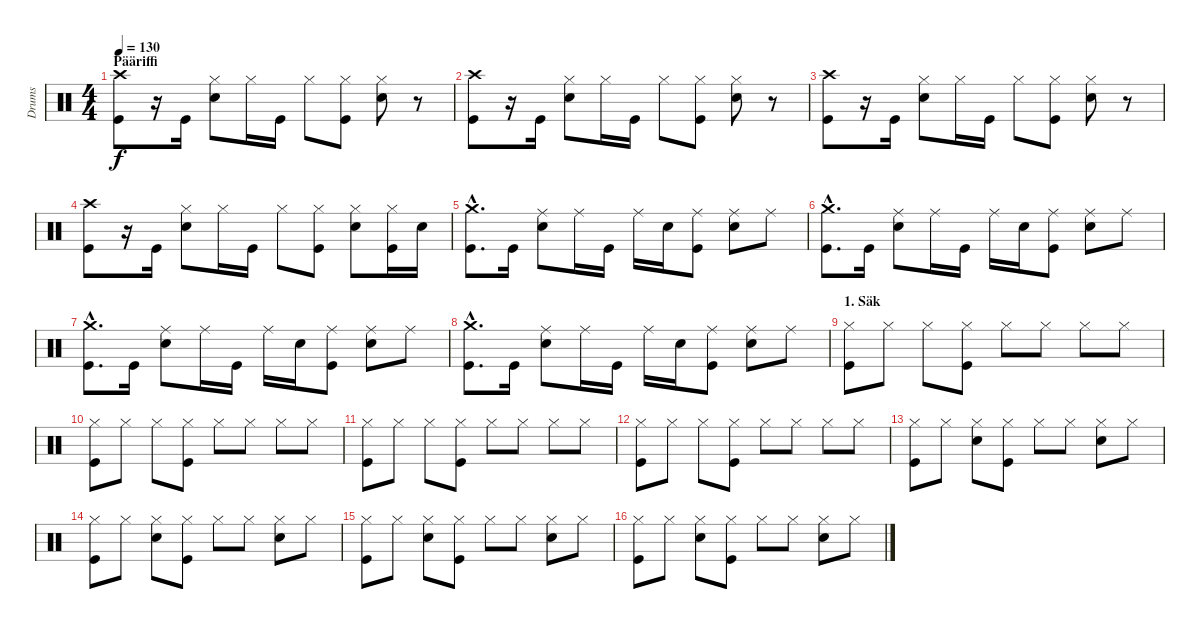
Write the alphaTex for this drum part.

\track ("Drums" "Drums") {instrument percussion}
\staff {score}
\articulation defaults
\ts (4 4)
\section ("" "Pääriffi")
\tempo 130
\clef neutral
\ks c
("Crash high (hit)" "Kick (hit)").8{dy f} r.16 "Kick (hit)".16 ("Hi-Hat (closed)" "Electric Snare (hit)").8 "Hi-Hat (closed)".16 "Kick (hit)".16 "Hi-Hat (closed)".8 ("Hi-Hat (closed)" "Kick (hit)").8 ("Hi-Hat (closed)" "Electric Snare (hit)").8 r.8 |
("Crash high (hit)" "Kick (hit)").8 r.16 "Kick (hit)".16 ("Hi-Hat (closed)" "Electric Snare (hit)").8 "Hi-Hat (closed)".16 "Kick (hit)".16 "Hi-Hat (closed)".8 ("Hi-Hat (closed)" "Kick (hit)").8 ("Hi-Hat (closed)" "Electric Snare (hit)").8 r.8 |
("Crash high (hit)" "Kick (hit)").8 r.16 "Kick (hit)".16 ("Hi-Hat (closed)" "Electric Snare (hit)").8 "Hi-Hat (closed)".16 "Kick (hit)".16 "Hi-Hat (closed)".8 ("Hi-Hat (closed)" "Kick (hit)").8 ("Hi-Hat (closed)" "Electric Snare (hit)").8 r.8 |
("Crash high (hit)" "Kick (hit)").8 r.16 "Kick (hit)".16 ("Hi-Hat (closed)" "Electric Snare (hit)").8 "Hi-Hat (closed)".16 "Kick (hit)".16 "Hi-Hat (closed)".8 ("Hi-Hat (closed)" "Kick (hit)").8 ("Hi-Hat (closed)" "Electric Snare (hit)").8 ("Hi-Hat (closed)" "Kick (hit)").16 "Electric Snare (hit)".16 |
("Crash medium (hit)"{hac} "Kick (hit)"{hac}).8{d} "Kick (hit)".16 ("Ride (middle)" "Electric Snare (hit)").8 "Ride (middle)".16 "Kick (hit)".16 "Ride (middle)".16 "Electric Snare (hit)".16 ("Ride (middle)" "Kick (hit)").8 ("Ride (middle)" "Electric Snare (hit)").8 "Ride (middle)".8 |
("Crash medium (hit)"{hac} "Kick (hit)"{hac}).8{d} "Kick (hit)".16 ("Ride (middle)" "Electric Snare (hit)").8 "Ride (middle)".16 "Kick (hit)".16 "Ride (middle)".16 "Electric Snare (hit)".16 ("Ride (middle)" "Kick (hit)").8 ("Ride (middle)" "Electric Snare (hit)").8 "Ride (middle)".8 |
("Crash medium (hit)"{hac} "Kick (hit)"{hac}).8{d} "Kick (hit)".16 ("Ride (middle)" "Electric Snare (hit)").8 "Ride (middle)".16 "Kick (hit)".16 "Ride (middle)".16 "Electric Snare (hit)".16 ("Ride (middle)" "Kick (hit)").8 ("Ride (middle)" "Electric Snare (hit)").8 "Ride (middle)".8 |
("Crash medium (hit)"{hac} "Kick (hit)"{hac}).8{d} "Kick (hit)".16 ("Ride (middle)" "Electric Snare (hit)").8 "Ride (middle)".16 "Kick (hit)".16 "Ride (middle)".16 "Electric Snare (hit)".16 ("Ride (middle)" "Kick (hit)").8 ("Ride (middle)" "Electric Snare (hit)").8 "Ride (middle)".8 |
\section ("" "1. Säk")
("Hi-Hat (closed)" "Kick (hit)").8 "Hi-Hat (closed)".8 "Hi-Hat (closed)".8 ("Hi-Hat (closed)" "Kick (hit)").8 "Hi-Hat (closed)".8 "Hi-Hat (closed)".8 "Hi-Hat (closed)".8 "Hi-Hat (closed)".8 |
("Hi-Hat (closed)" "Kick (hit)").8 "Hi-Hat (closed)".8 "Hi-Hat (closed)".8 ("Hi-Hat (closed)" "Kick (hit)").8 "Hi-Hat (closed)".8 "Hi-Hat (closed)".8 "Hi-Hat (closed)".8 "Hi-Hat (closed)".8 |
("Hi-Hat (closed)" "Kick (hit)").8 "Hi-Hat (closed)".8 "Hi-Hat (closed)".8 ("Hi-Hat (closed)" "Kick (hit)").8 "Hi-Hat (closed)".8 "Hi-Hat (closed)".8 "Hi-Hat (closed)".8 "Hi-Hat (closed)".8 |
("Hi-Hat (closed)" "Kick (hit)").8 "Hi-Hat (closed)".8 "Hi-Hat (closed)".8 ("Hi-Hat (closed)" "Kick (hit)").8 "Hi-Hat (closed)".8 "Hi-Hat (closed)".8 "Hi-Hat (closed)".8 "Hi-Hat (closed)".8 |
("Hi-Hat (closed)" "Kick (hit)").8 "Hi-Hat (closed)".8 ("Hi-Hat (closed)" "Electric Snare (hit)").8 ("Hi-Hat (closed)" "Kick (hit)").8 "Hi-Hat (closed)".8 "Hi-Hat (closed)".8 ("Hi-Hat (closed)" "Electric Snare (hit)").8 "Hi-Hat (closed)".8 |
("Hi-Hat (closed)" "Kick (hit)").8 "Hi-Hat (closed)".8 ("Hi-Hat (closed)" "Electric Snare (hit)").8 ("Hi-Hat (closed)" "Kick (hit)").8 "Hi-Hat (closed)".8 "Hi-Hat (closed)".8 ("Hi-Hat (closed)" "Electric Snare (hit)").8 "Hi-Hat (closed)".8 |
("Hi-Hat (closed)" "Kick (hit)").8 "Hi-Hat (closed)".8 ("Hi-Hat (closed)" "Electric Snare (hit)").8 ("Hi-Hat (closed)" "Kick (hit)").8 "Hi-Hat (closed)".8 "Hi-Hat (closed)".8 ("Hi-Hat (closed)" "Electric Snare (hit)").8 "Hi-Hat (closed)".8 |
("Hi-Hat (closed)" "Kick (hit)").8 "Hi-Hat (closed)".8 ("Hi-Hat (closed)" "Electric Snare (hit)").8 ("Hi-Hat (closed)" "Kick (hit)").8 "Hi-Hat (closed)".8 "Hi-Hat (closed)".8 ("Hi-Hat (closed)" "Electric Snare (hit)").8 "Hi-Hat (closed)".8
